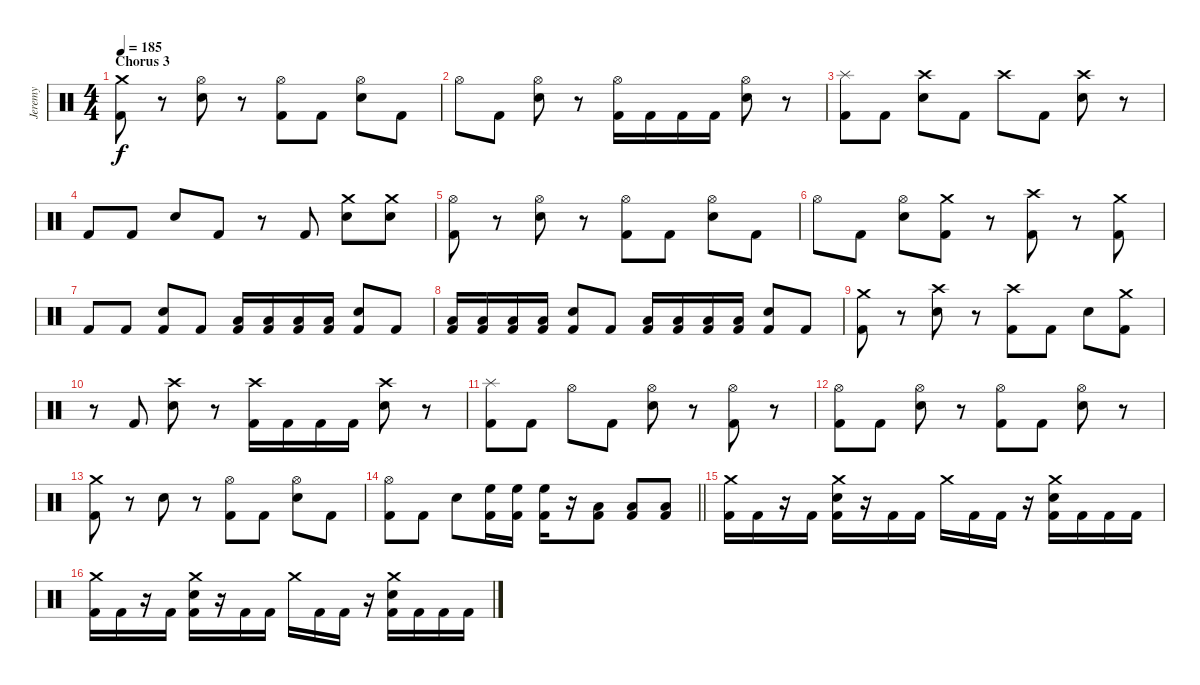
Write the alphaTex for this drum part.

\track ("Jeremy" "Jeremy") {instrument percussion}
\staff {score}
\articulation defaults
\ts (4 4)
\section ("" "Chorus 3")
\tempo 185
\clef neutral
\ks c
("Crash medium (hit)" "Kick (hit) 2").8{dy f} r.8 ("Hi-Hat (open)" "Snare (hit) 2").8 r.8 ("Hi-Hat (open)" "Kick (hit) 2").8 "Kick (hit) 2".8 ("Hi-Hat (open)" "Snare (hit) 2").8 "Kick (hit) 2".8 |
"Hi-Hat (open)".8 "Kick (hit) 2".8 ("Hi-Hat (open)" "Snare (hit) 2").8 r.8 ("Hi-Hat (open)" "Kick (hit) 2").16 "Kick (hit) 2".16 "Kick (hit) 2".16 "Kick (hit) 2".16 ("Hi-Hat (open)" "Snare (hit) 2").8 r.8 |
("Splash (hit)" "Kick (hit) 2").8 "Kick (hit) 2".8 ("Crash high (hit)" "Snare (hit) 2").8 "Kick (hit) 2".8 "Crash high (hit)".8 "Kick (hit) 2".8 ("Crash high (hit)" "Snare (hit) 2").8 r.8 |
"Kick (hit) 2".8 "Kick (hit) 2".8 "Snare (hit) 2".8 "Kick (hit) 2".8 r.8 "Kick (hit) 2".8 ("Crash medium (hit)" "Snare (hit) 2").8 ("Crash medium (hit)" "Snare (hit) 2").8 |
("Hi-Hat (open)" "Kick (hit) 2").8 r.8 ("Hi-Hat (open)" "Snare (hit) 2").8 r.8 ("Hi-Hat (open)" "Kick (hit) 2").8 "Kick (hit) 2".8 ("Hi-Hat (open)" "Snare (hit) 2").8 "Kick (hit) 2".8 |
"Hi-Hat (open)".8 "Kick (hit) 2".8 ("Hi-Hat (open)" "Snare (hit) 2").8 ("Crash medium (hit)" "Kick (hit) 2").8 r.8 ("Crash high (hit)" "Kick (hit) 2").8 r.8 ("Crash medium (hit)" "Kick (hit) 2").8 |
"Kick (hit) 2".8 "Kick (hit) 2".8 ("Snare (hit) 2" "Kick (hit) 2").8 "Kick (hit) 2".8 ("Low Tom (hit)" "Kick (hit) 2").16 ("Low Tom (hit)" "Kick (hit) 2").16 ("Low Tom (hit)" "Kick (hit) 2").16 ("Low Tom (hit)" "Kick (hit) 2").16 ("Snare (hit) 2" "Kick (hit) 2").8 "Kick (hit) 2".8 |
("Low Tom (hit)" "Kick (hit) 2").16 ("Low Tom (hit)" "Kick (hit) 2").16 ("Low Tom (hit)" "Kick (hit) 2").16 ("Low Tom (hit)" "Kick (hit) 2").16 ("Snare (hit) 2" "Kick (hit) 2").8 "Kick (hit) 2".8 ("Low Tom (hit)" "Kick (hit) 2").16 ("Low Tom (hit)" "Kick (hit) 2").16 ("Low Tom (hit)" "Kick (hit) 2").16 ("Low Tom (hit)" "Kick (hit) 2").16 ("Snare (hit) 2" "Kick (hit) 2").8 "Kick (hit) 2".8 |
("Crash medium (hit)" "Kick (hit) 2").8 r.8 ("Crash high (hit)" "Snare (hit) 2").8 r.8 ("Crash high (hit)" "Kick (hit) 2").8 "Kick (hit) 2".8 "Snare (hit) 2".8 ("Crash medium (hit)" "Kick (hit) 2").8 |
r.8 "Kick (hit) 2".8 ("Crash high (hit)" "Snare (hit) 2").8 r.8 ("Crash high (hit)" "Kick (hit) 2").16 "Kick (hit) 2".16 "Kick (hit) 2".16 "Kick (hit) 2".16 ("Crash high (hit)" "Snare (hit) 2").8 r.8 |
("Splash (hit)" "Kick (hit) 2").8 "Kick (hit) 2".8 "Hi-Hat (open)".8 "Kick (hit) 2".8 ("Hi-Hat (open)" "Snare (hit) 2").8 r.8 ("Hi-Hat (open)" "Kick (hit) 2").8 r.8 |
("Hi-Hat (open)" "Kick (hit) 2").8 "Kick (hit) 2".8 ("Hi-Hat (open)" "Snare (hit) 2").8 r.8 ("Hi-Hat (open)" "Kick (hit) 2").8 "Kick (hit) 2".8 ("Hi-Hat (open)" "Snare (hit) 2").8 r.8 |
("Crash medium (hit)" "Kick (hit) 2").8 r.8 "Snare (hit) 2".8 r.8 ("Hi-Hat (open)" "Kick (hit) 2").8 "Kick (hit) 2".8 ("Hi-Hat (open)" "Snare (hit) 2").8 "Kick (hit) 2".8 |
\barLineRight lightlight
("Hi-Hat (open)" "Kick (hit) 2").8 "Kick (hit) 2".8 "Snare (hit) 2".8 ("High Floor Tom (hit)" "Kick (hit) 2").16 ("High Floor Tom (hit)" "Kick (hit) 2").16 ("High Floor Tom (hit)" "Kick (hit) 2").16 r.16 ("Low Tom (hit)" "Kick (hit) 2").8 ("Low Tom (hit)" "Kick (hit) 2").8 ("Low Tom (hit)" "Kick (hit) 2").8 |
("Crash medium (hit)" "Kick (hit) 2").16 "Kick (hit) 2".16 r.16 "Kick (hit) 2".16 ("Crash medium (hit)" "Snare (hit) 2" "Kick (hit) 2").16 r.16 "Kick (hit) 2".16 "Kick (hit) 2".16 "Crash medium (hit)".16 "Kick (hit) 2".16 "Kick (hit) 2".16 r.16 ("Crash medium (hit)" "Snare (hit) 2" "Kick (hit) 2").16 "Kick (hit) 2".16 "Kick (hit) 2".16 "Kick (hit) 2".16 |
("Crash medium (hit)" "Kick (hit) 2").16 "Kick (hit) 2".16 r.16 "Kick (hit) 2".16 ("Crash medium (hit)" "Snare (hit) 2" "Kick (hit) 2").16 r.16 "Kick (hit) 2".16 "Kick (hit) 2".16 "Crash medium (hit)".16 "Kick (hit) 2".16 "Kick (hit) 2".16 r.16 ("Crash medium (hit)" "Snare (hit) 2" "Kick (hit) 2").16 "Kick (hit) 2".16 "Kick (hit) 2".16 "Kick (hit) 2".16
